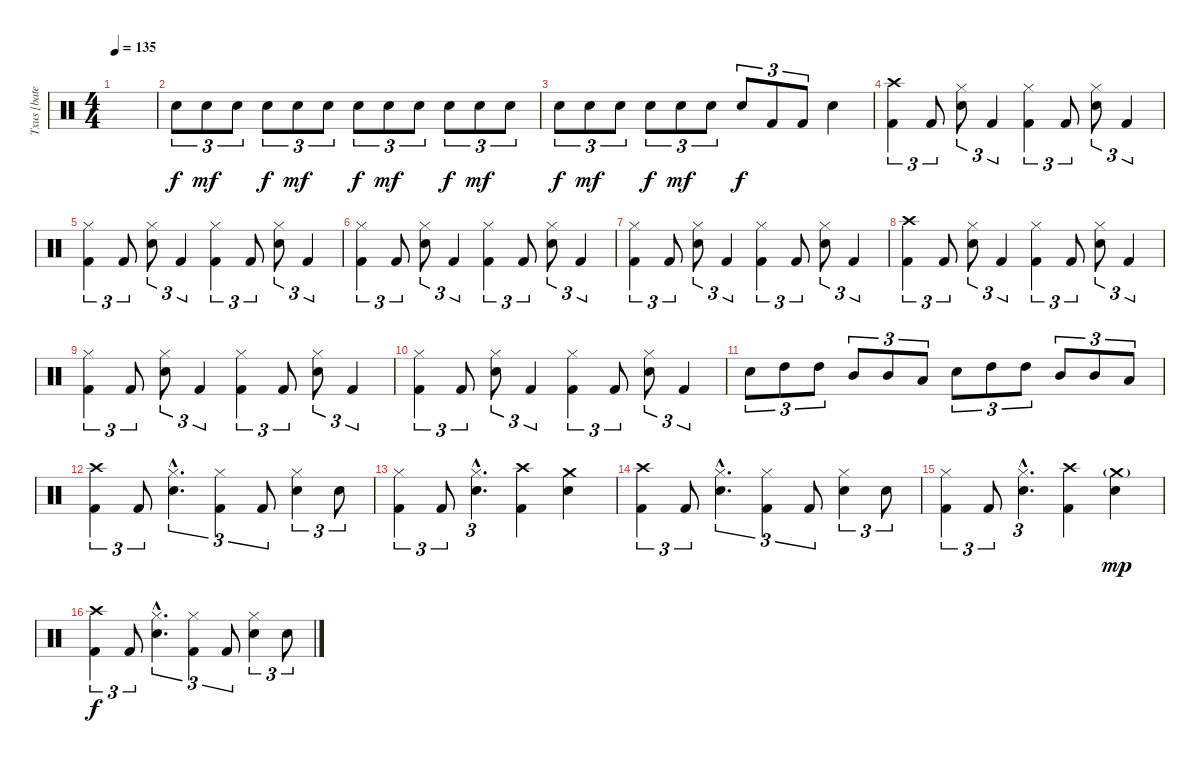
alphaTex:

\track ("Txus [bateria]" "Txus [bate") {instrument percussion}
\staff {score}
\articulation defaults
\ts (4 4)
\tempo 135
\clef neutral
\ks c
|
"Snare (hit) 2".8{tu (3 2)} "Snare (hit) 2".8{tu (3 2) dy mf} "Snare (hit) 2".8{tu (3 2)} "Snare (hit) 2".8{tu (3 2) dy f} "Snare (hit) 2".8{tu (3 2) dy mf} "Snare (hit) 2".8{tu (3 2)} "Snare (hit) 2".8{tu (3 2) dy f} "Snare (hit) 2".8{tu (3 2) dy mf} "Snare (hit) 2".8{tu (3 2)} "Snare (hit) 2".8{tu (3 2) dy f} "Snare (hit) 2".8{tu (3 2) dy mf} "Snare (hit) 2".8{tu (3 2)} |
"Snare (hit) 2".8{tu (3 2) dy f} "Snare (hit) 2".8{tu (3 2) dy mf} "Snare (hit) 2".8{tu (3 2)} "Snare (hit) 2".8{tu (3 2) dy f} "Snare (hit) 2".8{tu (3 2) dy mf} "Snare (hit) 2".8{tu (3 2)} "Snare (hit) 2".8{tu (3 2) dy f} "Kick (hit) 2".8{tu (3 2)} "Kick (hit) 2".8{tu (3 2)} "Snare (hit) 2".4 |
("Crash high (hit)" "Kick (hit) 2").4{tu (3 2)} "Kick (hit) 2".8{tu (3 2)} ("Hi-Hat (closed)" "Snare (hit) 2").8{tu (3 2)} "Kick (hit) 2".4{tu (3 2)} ("Hi-Hat (closed)" "Kick (hit) 2").4{tu (3 2)} "Kick (hit) 2".8{tu (3 2)} ("Hi-Hat (closed)" "Snare (hit) 2").8{tu (3 2)} "Kick (hit) 2".4{tu (3 2)} |
("Hi-Hat (closed)" "Kick (hit) 2").4{tu (3 2)} "Kick (hit) 2".8{tu (3 2)} ("Hi-Hat (closed)" "Snare (hit) 2").8{tu (3 2)} "Kick (hit) 2".4{tu (3 2)} ("Hi-Hat (closed)" "Kick (hit) 2").4{tu (3 2)} "Kick (hit) 2".8{tu (3 2)} ("Hi-Hat (closed)" "Snare (hit) 2").8{tu (3 2)} "Kick (hit) 2".4{tu (3 2)} |
("Hi-Hat (closed)" "Kick (hit) 2").4{tu (3 2)} "Kick (hit) 2".8{tu (3 2)} ("Hi-Hat (closed)" "Snare (hit) 2").8{tu (3 2)} "Kick (hit) 2".4{tu (3 2)} ("Hi-Hat (closed)" "Kick (hit) 2").4{tu (3 2)} "Kick (hit) 2".8{tu (3 2)} ("Hi-Hat (closed)" "Snare (hit) 2").8{tu (3 2)} "Kick (hit) 2".4{tu (3 2)} |
("Hi-Hat (closed)" "Kick (hit) 2").4{tu (3 2)} "Kick (hit) 2".8{tu (3 2)} ("Hi-Hat (closed)" "Snare (hit) 2").8{tu (3 2)} "Kick (hit) 2".4{tu (3 2)} ("Hi-Hat (closed)" "Kick (hit) 2").4{tu (3 2)} "Kick (hit) 2".8{tu (3 2)} ("Hi-Hat (closed)" "Snare (hit) 2").8{tu (3 2)} "Kick (hit) 2".4{tu (3 2)} |
("Crash high (hit)" "Kick (hit) 2").4{tu (3 2)} "Kick (hit) 2".8{tu (3 2)} ("Hi-Hat (closed)" "Snare (hit) 2").8{tu (3 2)} "Kick (hit) 2".4{tu (3 2)} ("Hi-Hat (closed)" "Kick (hit) 2").4{tu (3 2)} "Kick (hit) 2".8{tu (3 2)} ("Hi-Hat (closed)" "Snare (hit) 2").8{tu (3 2)} "Kick (hit) 2".4{tu (3 2)} |
("Hi-Hat (closed)" "Kick (hit) 2").4{tu (3 2)} "Kick (hit) 2".8{tu (3 2)} ("Hi-Hat (closed)" "Snare (hit) 2").8{tu (3 2)} "Kick (hit) 2".4{tu (3 2)} ("Hi-Hat (closed)" "Kick (hit) 2").4{tu (3 2)} "Kick (hit) 2".8{tu (3 2)} ("Hi-Hat (closed)" "Snare (hit) 2").8{tu (3 2)} "Kick (hit) 2".4{tu (3 2)} |
("Hi-Hat (closed)" "Kick (hit) 2").4{tu (3 2)} "Kick (hit) 2".8{tu (3 2)} ("Hi-Hat (closed)" "Snare (hit) 2").8{tu (3 2)} "Kick (hit) 2".4{tu (3 2)} ("Hi-Hat (closed)" "Kick (hit) 2").4{tu (3 2)} "Kick (hit) 2".8{tu (3 2)} ("Hi-Hat (closed)" "Snare (hit) 2").8{tu (3 2)} "Kick (hit) 2".4{tu (3 2)} |
"Snare (hit) 2".8{tu (3 2)} "High Tom (hit)".8{tu (3 2)} "High Tom (hit)".8{tu (3 2)} "Mid Tom (hit)".8{tu (3 2)} "Mid Tom (hit)".8{tu (3 2)} "Low Tom (hit)".8{tu (3 2)} "Snare (hit) 2".8{tu (3 2)} "High Tom (hit)".8{tu (3 2)} "High Tom (hit)".8{tu (3 2)} "Mid Tom (hit)".8{tu (3 2)} "Mid Tom (hit)".8{tu (3 2)} "Low Tom (hit)".8{tu (3 2)} |
("Crash high (hit)" "Kick (hit) 2").4{tu (3 2)} "Kick (hit) 2".8{tu (3 2)} ("Hi-Hat (closed)"{hac} "Snare (hit) 2"{hac}).4{d tu (3 2)} ("Hi-Hat (closed)" "Kick (hit) 2").4{tu (3 2)} "Kick (hit) 2".8{tu (3 2)} ("Hi-Hat (closed)" "Snare (hit) 2").4{tu (3 2)} "Snare (hit) 2".8{tu (3 2)} |
("Hi-Hat (closed)" "Kick (hit) 2").4{tu (3 2)} "Kick (hit) 2".8{tu (3 2)} ("Hi-Hat (closed)"{hac} "Snare (hit) 2"{hac}).4{d tu (3 2)} ("Crash high (hit)" "Kick (hit) 2").4 ("Crash medium (hit)" "Snare (hit) 2").4 |
("Crash high (hit)" "Kick (hit) 2").4{tu (3 2)} "Kick (hit) 2".8{tu (3 2)} ("Hi-Hat (closed)"{hac} "Snare (hit) 2"{hac}).4{d tu (3 2)} ("Hi-Hat (closed)" "Kick (hit) 2").4{tu (3 2)} "Kick (hit) 2".8{tu (3 2)} ("Hi-Hat (closed)" "Snare (hit) 2").4{tu (3 2)} "Snare (hit) 2".8{tu (3 2)} |
("Hi-Hat (closed)" "Kick (hit) 2").4{tu (3 2)} "Kick (hit) 2".8{tu (3 2)} ("Hi-Hat (closed)"{hac} "Snare (hit) 2"{hac}).4{d tu (3 2)} ("Crash high (hit)" "Kick (hit) 2").4 ("Crash medium (hit)"{g} "Snare (hit) 2").4{dy mp} |
("Crash high (hit)" "Kick (hit) 2").4{tu (3 2) dy f} "Kick (hit) 2".8{tu (3 2)} ("Hi-Hat (closed)"{hac} "Snare (hit) 2"{hac}).4{d tu (3 2)} ("Hi-Hat (closed)" "Kick (hit) 2").4{tu (3 2)} "Kick (hit) 2".8{tu (3 2)} ("Hi-Hat (closed)" "Snare (hit) 2").4{tu (3 2)} "Snare (hit) 2".8{tu (3 2)}
